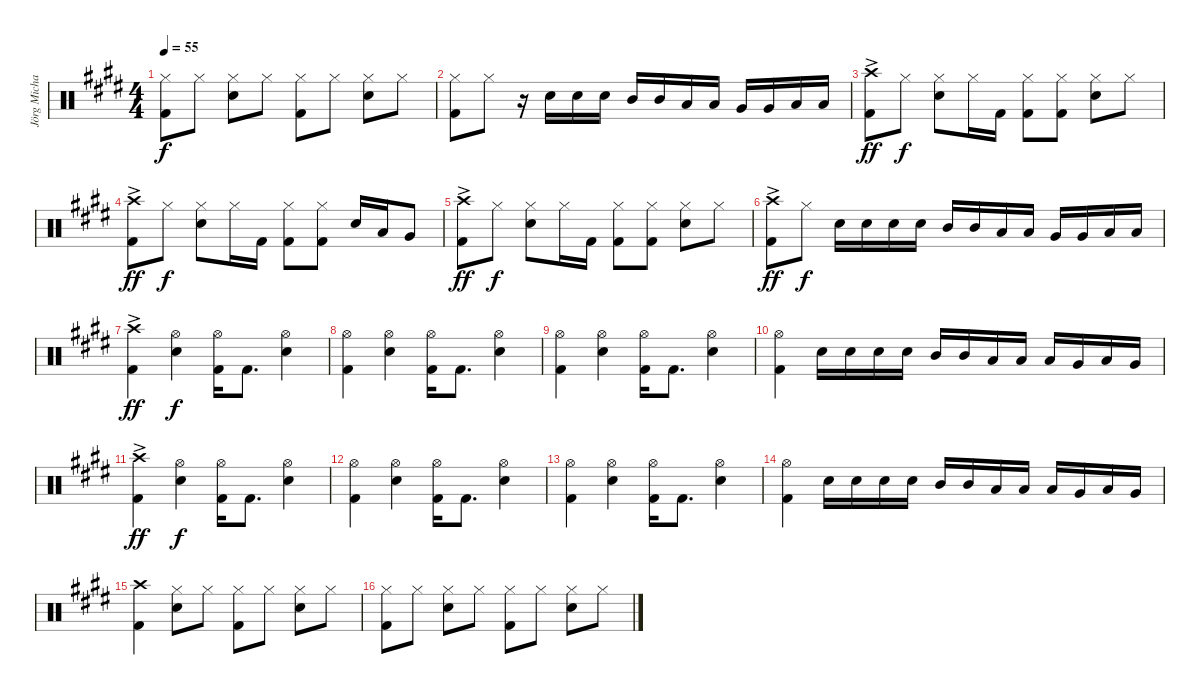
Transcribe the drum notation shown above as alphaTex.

\track ("Jörg Michael" "Jörg Micha") {instrument percussion}
\staff {score}
\articulation defaults
\ts (4 4)
\tempo 55
\clef neutral
\ks e
("Hi-Hat (closed)" "Kick (hit) 2").8{dy f} "Hi-Hat (closed)".8 ("Hi-Hat (closed)" "Electric Snare (hit)").8 "Hi-Hat (closed)".8 ("Hi-Hat (closed)" "Kick (hit) 2").8 "Hi-Hat (closed)".8 ("Hi-Hat (closed)" "Electric Snare (hit)").8 "Hi-Hat (closed)".8 |
("Hi-Hat (closed)" "Kick (hit) 2").8 "Hi-Hat (closed)".8 r.16 "Electric Snare (hit)".16 "Electric Snare (hit)".16 "Electric Snare (hit)".16 "Mid Tom (hit)".16 "Mid Tom (hit)".16 "Low Tom (hit)".16 "Low Tom (hit)".16 "Very Low Tom (hit)".16 "Very Low Tom (hit)".16 "Low Floor Tom (hit)".16 "Low Floor Tom (hit)".16 |
("Crash high (hit)"{ac} "Kick (hit) 2"{ac}).8{dy ff} "Hi-Hat (closed)".8{dy f} ("Hi-Hat (closed)" "Electric Snare (hit)").8 "Hi-Hat (closed)".16 "Kick (hit) 2".16 ("Hi-Hat (closed)" "Kick (hit) 2").8 ("Hi-Hat (closed)" "Kick (hit) 2").8 ("Hi-Hat (closed)" "Electric Snare (hit)").8 "Hi-Hat (closed)".8 |
("Crash high (hit)"{ac} "Kick (hit) 2"{ac}).8{dy ff} "Hi-Hat (closed)".8{dy f} ("Hi-Hat (closed)" "Electric Snare (hit)").8 "Hi-Hat (closed)".16 "Kick (hit) 2".16 ("Hi-Hat (closed)" "Kick (hit) 2").8 ("Hi-Hat (closed)" "Kick (hit) 2").8 "Electric Snare (hit)".16 "Low Tom (hit)".16 "Very Low Tom (hit)".8 |
("Crash high (hit)"{ac} "Kick (hit) 2"{ac}).8{dy ff} "Hi-Hat (closed)".8{dy f} ("Hi-Hat (closed)" "Electric Snare (hit)").8 "Hi-Hat (closed)".16 "Kick (hit) 2".16 ("Hi-Hat (closed)" "Kick (hit) 2").8 ("Hi-Hat (closed)" "Kick (hit) 2").8 ("Hi-Hat (closed)" "Electric Snare (hit)").8 "Hi-Hat (closed)".8 |
("Crash high (hit)"{ac} "Kick (hit) 2"{ac}).8{dy ff} "Hi-Hat (closed)".8{dy f} "Electric Snare (hit)".16 "Electric Snare (hit)".16 "Electric Snare (hit)".16 "Electric Snare (hit)".16 "Mid Tom (hit)".16 "Mid Tom (hit)".16 "Low Tom (hit)".16 "Low Tom (hit)".16 "Very Low Tom (hit)".16 "Very Low Tom (hit)".16 "Low Floor Tom (hit)".16 "Low Floor Tom (hit)".16 |
("Crash high (hit)"{ac} "Kick (hit) 2"{ac}).4{dy ff volume 13} ("Hi-Hat (open)" "Electric Snare (hit)").4{dy f} ("Hi-Hat (open)" "Kick (hit) 2").16 "Kick (hit) 2".8{d} ("Hi-Hat (open)" "Electric Snare (hit)").4 |
("Hi-Hat (open)" "Kick (hit) 2").4 ("Hi-Hat (open)" "Electric Snare (hit)").4 ("Hi-Hat (open)" "Kick (hit) 2").16 "Kick (hit) 2".8{d} ("Hi-Hat (open)" "Electric Snare (hit)").4 |
("Hi-Hat (open)" "Kick (hit) 2").4 ("Hi-Hat (open)" "Electric Snare (hit)").4 ("Hi-Hat (open)" "Kick (hit) 2").16 "Kick (hit) 2".8{d} ("Hi-Hat (open)" "Electric Snare (hit)").4 |
("Hi-Hat (open)" "Kick (hit) 2").4 "Electric Snare (hit)".16 "Electric Snare (hit)".16 "Electric Snare (hit)".16 "Electric Snare (hit)".16 "Mid Tom (hit)".16 "Mid Tom (hit)".16 "Low Tom (hit)".16 "Low Tom (hit)".16 "Low Tom (hit)".16 "Very Low Tom (hit)".16 "Low Tom (hit)".16 "Very Low Tom (hit)".16 |
("Crash high (hit)"{ac} "Kick (hit) 2"{ac}).4{dy ff volume 13} ("Hi-Hat (open)" "Electric Snare (hit)").4{dy f} ("Hi-Hat (open)" "Kick (hit) 2").16 "Kick (hit) 2".8{d} ("Hi-Hat (open)" "Electric Snare (hit)").4 |
("Hi-Hat (open)" "Kick (hit) 2").4 ("Hi-Hat (open)" "Electric Snare (hit)").4 ("Hi-Hat (open)" "Kick (hit) 2").16 "Kick (hit) 2".8{d} ("Hi-Hat (open)" "Electric Snare (hit)").4 |
("Hi-Hat (open)" "Kick (hit) 2").4 ("Hi-Hat (open)" "Electric Snare (hit)").4 ("Hi-Hat (open)" "Kick (hit) 2").16 "Kick (hit) 2".8{d} ("Hi-Hat (open)" "Electric Snare (hit)").4 |
("Hi-Hat (open)" "Kick (hit) 2").4 "Electric Snare (hit)".16 "Electric Snare (hit)".16 "Electric Snare (hit)".16 "Electric Snare (hit)".16 "Mid Tom (hit)".16 "Mid Tom (hit)".16 "Low Tom (hit)".16 "Low Tom (hit)".16 "Low Tom (hit)".16 "Very Low Tom (hit)".16 "Low Tom (hit)".16 "Very Low Tom (hit)".16 |
("Crash high (hit)" "Kick (hit) 2").4 ("Electric Snare (hit)" "Hi-Hat (closed)").8 "Hi-Hat (closed)".8 ("Kick (hit) 2" "Hi-Hat (closed)").8 "Hi-Hat (closed)".8 ("Electric Snare (hit)" "Hi-Hat (closed)").8 "Hi-Hat (closed)".8 |
("Hi-Hat (closed)" "Kick (hit) 2").8 "Hi-Hat (closed)".8 ("Hi-Hat (closed)" "Electric Snare (hit)").8 "Hi-Hat (closed)".8 ("Hi-Hat (closed)" "Kick (hit) 2").8 "Hi-Hat (closed)".8 ("Hi-Hat (closed)" "Electric Snare (hit)").8 "Hi-Hat (closed)".8
